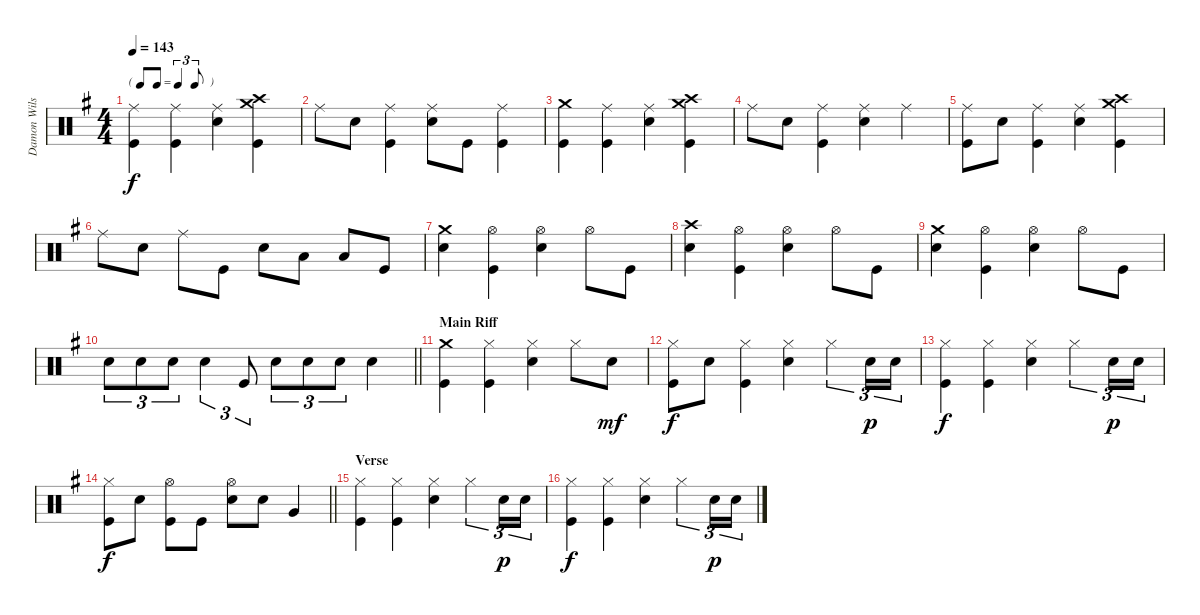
\track ("Damon Wilson" "Damon Wils") {instrument percussion}
\staff {score}
\articulation defaults
\ts (4 4)
\tf triplet8th
\tempo 143
\clef neutral
\ks g
("Ride (middle)" "Kick (hit)").4{dy f} ("Ride (middle)" "Kick (hit)").4 ("Ride (middle)" "Electric Snare (hit)").4 ("Crash high (hit)" "Crash medium (hit)" "Kick (hit)").4 |
"Ride (middle)".8 "Electric Snare (hit)".8 ("Ride (middle)" "Kick (hit)").4 ("Ride (middle)" "Electric Snare (hit)").8 "Kick (hit)".8 ("Ride (middle)" "Kick (hit)").4 |
("Crash medium (hit)" "Kick (hit)").4 ("Ride (middle)" "Kick (hit)").4 ("Ride (middle)" "Electric Snare (hit)").4 ("Crash high (hit)" "Crash medium (hit)" "Kick (hit)").4 |
"Ride (middle)".8 "Electric Snare (hit)".8 ("Ride (middle)" "Kick (hit)").4 ("Ride (middle)" "Electric Snare (hit)").4 "Ride (middle)".4 |
("Ride (middle)" "Kick (hit)").8 "Electric Snare (hit)".8 ("Ride (middle)" "Kick (hit)").4 ("Ride (middle)" "Electric Snare (hit)").4 ("Crash high (hit)" "Crash medium (hit)" "Kick (hit)").4 |
"Ride (middle)".8 "Electric Snare (hit)".8 "Ride (middle)".8 "Kick (hit)".8 "Electric Snare (hit)".8 "Low Tom (hit)".8 "Low Floor Tom (hit)".8 "Kick (hit)".8 |
("Crash medium (hit)" "Electric Snare (hit)").4 ("Hi-Hat (open)" "Kick (hit)").4 ("Hi-Hat (open)" "Electric Snare (hit)").4 "Hi-Hat (open)".8 "Kick (hit)".8 |
("Crash high (hit)" "Electric Snare (hit)").4 ("Hi-Hat (open)" "Kick (hit)").4 ("Hi-Hat (open)" "Electric Snare (hit)").4 "Hi-Hat (open)".8 "Kick (hit)".8 |
("Crash medium (hit)" "Electric Snare (hit)").4 ("Hi-Hat (open)" "Kick (hit)").4 ("Hi-Hat (open)" "Electric Snare (hit)").4 "Hi-Hat (open)".8 "Kick (hit)".8 |
\barLineRight lightlight "Electric Snare (hit)".8{tu (3 2)} "Electric Snare (hit)".8{tu (3 2)} "Electric Snare (hit)".8{tu (3 2)} "Electric Snare (hit)".4{tu (3 2)} "Kick (hit)".8{tu (3 2)} "Electric Snare (hit)".8{tu (3 2)} "Electric Snare (hit)".8{tu (3 2)} "Electric Snare (hit)".8{tu (3 2)} "Electric Snare (hit)".4
|
\section ("" "Main Riff")
("Crash medium (hit)" "Kick (hit)").4 ("Hi-Hat (closed)" "Kick (hit)").4 ("Hi-Hat (closed)" "Electric Snare (hit)").4 "Hi-Hat (closed)".8 "Electric Snare (hit)".8{dy mf} |
("Hi-Hat (closed)" "Kick (hit)").8{dy f} "Electric Snare (hit)".8 ("Hi-Hat (closed)" "Kick (hit)").4 ("Hi-Hat (closed)" "Electric Snare (hit)").4 "Hi-Hat (closed)".4{tu (3 2)} "Electric Snare (hit)".16{tu (3 2) dy p} "Electric Snare (hit)".16{tu (3 2)} |
("Hi-Hat (closed)" "Kick (hit)").4{dy f} ("Hi-Hat (closed)" "Kick (hit)").4 ("Hi-Hat (closed)" "Electric Snare (hit)").4 "Hi-Hat (closed)".4{tu (3 2)} "Electric Snare (hit)".16{tu (3 2) dy p} "Electric Snare (hit)".16{tu (3 2)} |
\barLineRight lightlight
("Hi-Hat (closed)" "Kick (hit)").8{dy f} "Electric Snare (hit)".8 ("Hi-Hat (open)" "Kick (hit)").8 "Kick (hit)".8 ("Hi-Hat (open)" "Electric Snare (hit)").8 "Electric Snare (hit)".8 "Very Low Tom (hit)".4 |
\section ("" "Verse")
("Hi-Hat (closed)" "Kick (hit)").4 ("Hi-Hat (closed)" "Kick (hit)").4 ("Hi-Hat (closed)" "Electric Snare (hit)").4 "Hi-Hat (closed)".4{tu (3 2)} "Electric Snare (hit)".16{tu (3 2) dy p} "Electric Snare (hit)".16{tu (3 2)} |
("Hi-Hat (closed)" "Kick (hit)").4{dy f} ("Hi-Hat (closed)" "Kick (hit)").4 ("Hi-Hat (closed)" "Electric Snare (hit)").4 "Hi-Hat (closed)".4{tu (3 2)} "Electric Snare (hit)".16{tu (3 2) dy p} "Electric Snare (hit)".16{tu (3 2)}
